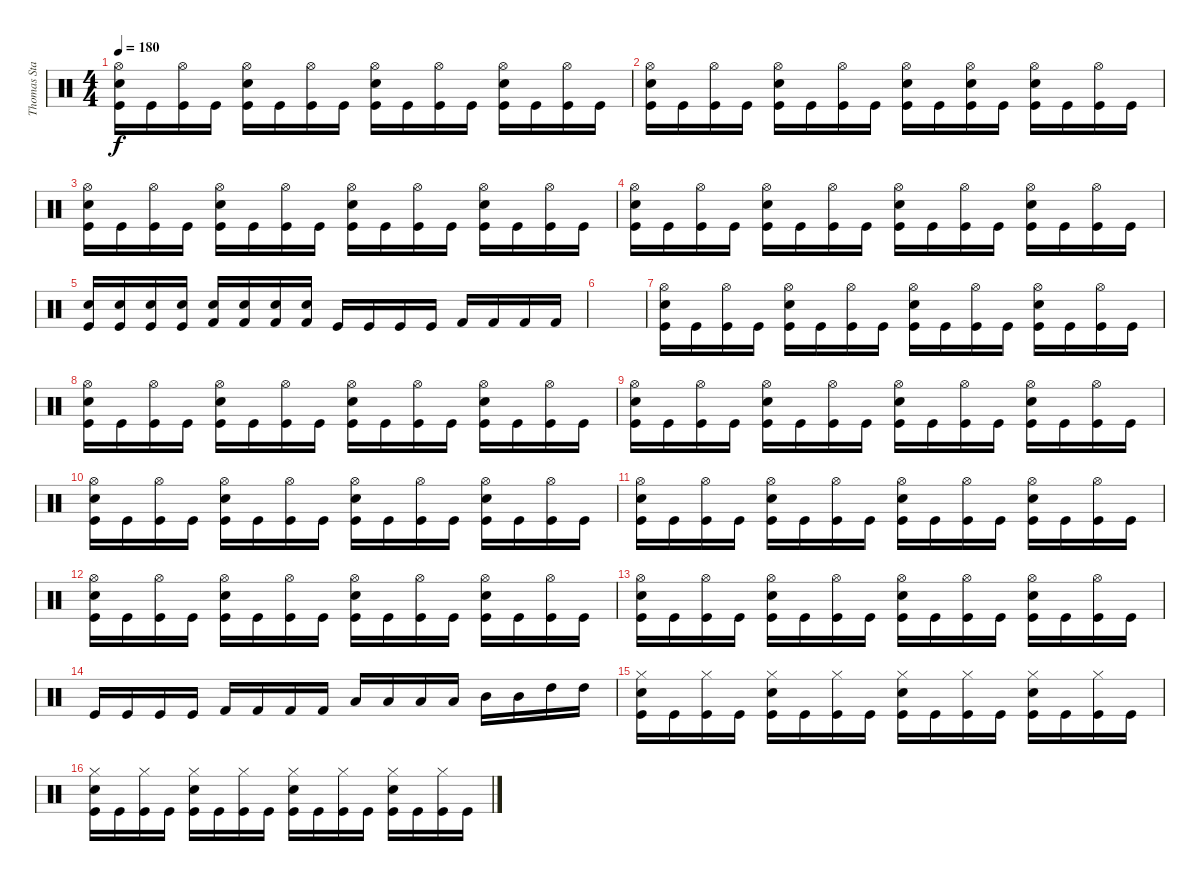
\track ("Thomas Stauch" "Thomas Sta") {instrument percussion}
\staff {score}
\articulation defaults
\ts (4 4)
\tempo 180
\clef neutral
\ks c
("Kick (hit)" "Snare (hit) 2" "Hi-Hat (open)").16{dy f} "Kick (hit)".16 ("Kick (hit)" "Hi-Hat (open)").16 "Kick (hit)".16 ("Kick (hit)" "Snare (hit) 2" "Hi-Hat (open)").16 "Kick (hit)".16 ("Kick (hit)" "Hi-Hat (open)").16 "Kick (hit)".16 ("Kick (hit)" "Snare (hit) 2" "Hi-Hat (open)").16 "Kick (hit)".16 ("Kick (hit)" "Hi-Hat (open)").16 "Kick (hit)".16 ("Kick (hit)" "Snare (hit) 2" "Hi-Hat (open)").16 "Kick (hit)".16 ("Kick (hit)" "Hi-Hat (open)").16 "Kick (hit)".16 |
("Kick (hit)" "Snare (hit) 2" "Hi-Hat (open)").16 "Kick (hit)".16 ("Kick (hit)" "Hi-Hat (open)").16 "Kick (hit)".16 ("Kick (hit)" "Snare (hit) 2" "Hi-Hat (open)").16 "Kick (hit)".16 ("Kick (hit)" "Hi-Hat (open)").16 "Kick (hit)".16 ("Kick (hit)" "Snare (hit) 2" "Hi-Hat (open)").16 "Kick (hit)".16 ("Kick (hit)" "Snare (hit) 2" "Hi-Hat (open)").16 "Kick (hit)".16 ("Kick (hit)" "Snare (hit) 2" "Hi-Hat (open)").16 "Kick (hit)".16 ("Kick (hit)" "Hi-Hat (open)").16 "Kick (hit)".16 |
("Kick (hit)" "Snare (hit) 2" "Hi-Hat (open)").16 "Kick (hit)".16 ("Kick (hit)" "Hi-Hat (open)").16 "Kick (hit)".16 ("Kick (hit)" "Snare (hit) 2" "Hi-Hat (open)").16 "Kick (hit)".16 ("Kick (hit)" "Hi-Hat (open)").16 "Kick (hit)".16 ("Kick (hit)" "Snare (hit) 2" "Hi-Hat (open)").16 "Kick (hit)".16 ("Kick (hit)" "Hi-Hat (open)").16 "Kick (hit)".16 ("Kick (hit)" "Snare (hit) 2" "Hi-Hat (open)").16 "Kick (hit)".16 ("Kick (hit)" "Hi-Hat (open)").16 "Kick (hit)".16 |
("Kick (hit)" "Snare (hit) 2" "Hi-Hat (open)").16 "Kick (hit)".16 ("Kick (hit)" "Hi-Hat (open)").16 "Kick (hit)".16 ("Kick (hit)" "Snare (hit) 2" "Hi-Hat (open)").16 "Kick (hit)".16 ("Kick (hit)" "Hi-Hat (open)").16 "Kick (hit)".16 ("Kick (hit)" "Snare (hit) 2" "Hi-Hat (open)").16 "Kick (hit)".16 ("Kick (hit)" "Hi-Hat (open)").16 "Kick (hit)".16 ("Kick (hit)" "Snare (hit) 2" "Hi-Hat (open)").16 "Kick (hit)".16 ("Kick (hit)" "Hi-Hat (open)").16 "Kick (hit)".16 |
("Kick (hit)" "Snare (hit) 2").16 ("Kick (hit)" "Snare (hit) 2").16 ("Kick (hit)" "Snare (hit) 2").16 ("Kick (hit)" "Snare (hit) 2").16 ("Kick (hit) 2" "Snare (hit) 2").16 ("Kick (hit) 2" "Snare (hit) 2").16 ("Kick (hit) 2" "Snare (hit) 2").16 ("Kick (hit) 2" "Snare (hit) 2").16 "Kick (hit)".16 "Kick (hit)".16 "Kick (hit)".16 "Kick (hit)".16 "Kick (hit) 2".16 "Kick (hit) 2".16 "Kick (hit) 2".16 "Kick (hit) 2".16 |
|
("Kick (hit)" "Snare (hit) 2" "Hi-Hat (open)").16 "Kick (hit)".16 ("Kick (hit)" "Hi-Hat (open)").16 "Kick (hit)".16 ("Kick (hit)" "Snare (hit) 2" "Hi-Hat (open)").16 "Kick (hit)".16 ("Kick (hit)" "Hi-Hat (open)").16 "Kick (hit)".16 ("Kick (hit)" "Snare (hit) 2" "Hi-Hat (open)").16 "Kick (hit)".16 ("Kick (hit)" "Hi-Hat (open)").16 "Kick (hit)".16 ("Kick (hit)" "Snare (hit) 2" "Hi-Hat (open)").16 "Kick (hit)".16 ("Kick (hit)" "Hi-Hat (open)").16 "Kick (hit)".16 |
("Kick (hit)" "Snare (hit) 2" "Hi-Hat (open)").16 "Kick (hit)".16 ("Kick (hit)" "Hi-Hat (open)").16 "Kick (hit)".16 ("Kick (hit)" "Snare (hit) 2" "Hi-Hat (open)").16 "Kick (hit)".16 ("Kick (hit)" "Hi-Hat (open)").16 "Kick (hit)".16 ("Kick (hit)" "Snare (hit) 2" "Hi-Hat (open)").16 "Kick (hit)".16 ("Kick (hit)" "Hi-Hat (open)").16 "Kick (hit)".16 ("Kick (hit)" "Snare (hit) 2" "Hi-Hat (open)").16 "Kick (hit)".16 ("Kick (hit)" "Hi-Hat (open)").16 "Kick (hit)".16 |
("Kick (hit)" "Snare (hit) 2" "Hi-Hat (open)").16 "Kick (hit)".16 ("Kick (hit)" "Hi-Hat (open)").16 "Kick (hit)".16 ("Kick (hit)" "Snare (hit) 2" "Hi-Hat (open)").16 "Kick (hit)".16 ("Kick (hit)" "Hi-Hat (open)").16 "Kick (hit)".16 ("Kick (hit)" "Snare (hit) 2" "Hi-Hat (open)").16 "Kick (hit)".16 ("Kick (hit)" "Hi-Hat (open)").16 "Kick (hit)".16 ("Kick (hit)" "Snare (hit) 2" "Hi-Hat (open)").16 "Kick (hit)".16 ("Kick (hit)" "Hi-Hat (open)").16 "Kick (hit)".16 |
("Kick (hit)" "Snare (hit) 2" "Hi-Hat (open)").16 "Kick (hit)".16 ("Kick (hit)" "Hi-Hat (open)").16 "Kick (hit)".16 ("Kick (hit)" "Snare (hit) 2" "Hi-Hat (open)").16 "Kick (hit)".16 ("Kick (hit)" "Hi-Hat (open)").16 "Kick (hit)".16 ("Kick (hit)" "Snare (hit) 2" "Hi-Hat (open)").16 "Kick (hit)".16 ("Kick (hit)" "Hi-Hat (open)").16 "Kick (hit)".16 ("Kick (hit)" "Snare (hit) 2" "Hi-Hat (open)").16 "Kick (hit)".16 ("Kick (hit)" "Hi-Hat (open)").16 "Kick (hit)".16 |
("Kick (hit)" "Snare (hit) 2" "Hi-Hat (open)").16 "Kick (hit)".16 ("Kick (hit)" "Hi-Hat (open)").16 "Kick (hit)".16 ("Kick (hit)" "Snare (hit) 2" "Hi-Hat (open)").16 "Kick (hit)".16 ("Kick (hit)" "Hi-Hat (open)").16 "Kick (hit)".16 ("Kick (hit)" "Snare (hit) 2" "Hi-Hat (open)").16 "Kick (hit)".16 ("Kick (hit)" "Hi-Hat (open)").16 "Kick (hit)".16 ("Kick (hit)" "Snare (hit) 2" "Hi-Hat (open)").16 "Kick (hit)".16 ("Kick (hit)" "Hi-Hat (open)").16 "Kick (hit)".16 |
("Kick (hit)" "Snare (hit) 2" "Hi-Hat (open)").16 "Kick (hit)".16 ("Kick (hit)" "Hi-Hat (open)").16 "Kick (hit)".16 ("Kick (hit)" "Snare (hit) 2" "Hi-Hat (open)").16 "Kick (hit)".16 ("Kick (hit)" "Hi-Hat (open)").16 "Kick (hit)".16 ("Kick (hit)" "Snare (hit) 2" "Hi-Hat (open)").16 "Kick (hit)".16 ("Kick (hit)" "Hi-Hat (open)").16 "Kick (hit)".16 ("Kick (hit)" "Snare (hit) 2" "Hi-Hat (open)").16 "Kick (hit)".16 ("Kick (hit)" "Hi-Hat (open)").16 "Kick (hit)".16 |
("Kick (hit)" "Snare (hit) 2" "Hi-Hat (open)").16 "Kick (hit)".16 ("Kick (hit)" "Hi-Hat (open)").16 "Kick (hit)".16 ("Kick (hit)" "Snare (hit) 2" "Hi-Hat (open)").16 "Kick (hit)".16 ("Kick (hit)" "Hi-Hat (open)").16 "Kick (hit)".16 ("Kick (hit)" "Snare (hit) 2" "Hi-Hat (open)").16 "Kick (hit)".16 ("Kick (hit)" "Hi-Hat (open)").16 "Kick (hit)".16 ("Kick (hit)" "Snare (hit) 2" "Hi-Hat (open)").16 "Kick (hit)".16 ("Kick (hit)" "Hi-Hat (open)").16 "Kick (hit)".16 |
"Kick (hit)".16 "Kick (hit)".16 "Kick (hit)".16 "Kick (hit)".16 "Kick (hit) 2".16 "Kick (hit) 2".16 "Kick (hit) 2".16 "Kick (hit) 2".16 "Low Tom (hit)".16 "Low Tom (hit)".16 "Low Tom (hit)".16 "Low Tom (hit)".16 "Mid Tom (hit)".16 "Mid Tom (hit)".16 "High Tom (hit)".16 "High Tom (hit)".16 |
("Kick (hit)" "Snare (hit) 2" "Hi-Hat (closed)").16 "Kick (hit)".16 ("Kick (hit)" "Hi-Hat (closed)").16 "Kick (hit)".16 ("Kick (hit)" "Snare (hit) 2" "Hi-Hat (closed)").16 "Kick (hit)".16 ("Kick (hit)" "Hi-Hat (closed)").16 "Kick (hit)".16 ("Kick (hit)" "Snare (hit) 2" "Hi-Hat (closed)").16 "Kick (hit)".16 ("Kick (hit)" "Hi-Hat (closed)").16 "Kick (hit)".16 ("Kick (hit)" "Snare (hit) 2" "Hi-Hat (closed)").16 "Kick (hit)".16 ("Kick (hit)" "Hi-Hat (closed)").16 "Kick (hit)".16 |
("Kick (hit)" "Snare (hit) 2" "Hi-Hat (closed)").16 "Kick (hit)".16 ("Kick (hit)" "Hi-Hat (closed)").16 "Kick (hit)".16 ("Kick (hit)" "Snare (hit) 2" "Hi-Hat (closed)").16 "Kick (hit)".16 ("Kick (hit)" "Hi-Hat (closed)").16 "Kick (hit)".16 ("Kick (hit)" "Snare (hit) 2" "Hi-Hat (closed)").16 "Kick (hit)".16 ("Kick (hit)" "Hi-Hat (closed)").16 "Kick (hit)".16 ("Kick (hit)" "Snare (hit) 2" "Hi-Hat (closed)").16 "Kick (hit)".16 ("Kick (hit)" "Hi-Hat (closed)").16 "Kick (hit)".16
